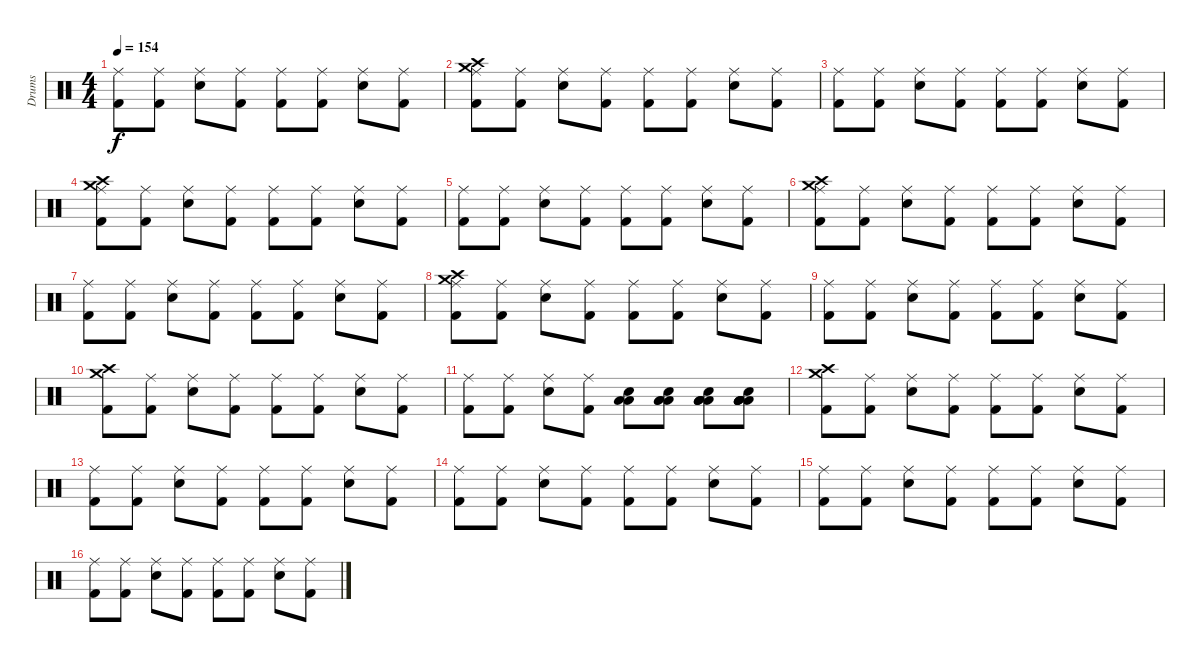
\track ("Drums" "Drums") {instrument percussion}
\staff {score}
\articulation defaults
\ts (4 4)
\tempo 154
\clef neutral
\ks c
("Ride (middle)" "Kick (hit) 2").8{dy f} ("Ride (middle)" "Kick (hit) 2").8 ("Ride (middle)" "Snare (hit) 2").8 ("Ride (middle)" "Kick (hit) 2").8 ("Ride (middle)" "Kick (hit) 2").8 ("Ride (middle)" "Kick (hit) 2").8 ("Ride (middle)" "Snare (hit) 2").8 ("Ride (middle)" "Kick (hit) 2").8 |
("Crash medium (hit)" "Crash high (hit)" "Ride (middle)" "Kick (hit) 2").8 ("Ride (middle)" "Kick (hit) 2").8 ("Ride (middle)" "Snare (hit) 2").8 ("Ride (middle)" "Kick (hit) 2").8 ("Ride (middle)" "Kick (hit) 2").8 ("Ride (middle)" "Kick (hit) 2").8 ("Ride (middle)" "Snare (hit) 2").8 ("Ride (middle)" "Kick (hit) 2").8 |
("Ride (middle)" "Kick (hit) 2").8 ("Ride (middle)" "Kick (hit) 2").8 ("Ride (middle)" "Snare (hit) 2").8 ("Ride (middle)" "Kick (hit) 2").8 ("Ride (middle)" "Kick (hit) 2").8 ("Ride (middle)" "Kick (hit) 2").8 ("Ride (middle)" "Snare (hit) 2").8 ("Ride (middle)" "Kick (hit) 2").8 |
("Crash high (hit)" "Crash medium (hit)" "Ride (middle)" "Kick (hit) 2").8 ("Ride (middle)" "Kick (hit) 2").8 ("Ride (middle)" "Snare (hit) 2").8 ("Ride (middle)" "Kick (hit) 2").8 ("Ride (middle)" "Kick (hit) 2").8 ("Ride (middle)" "Kick (hit) 2").8 ("Ride (middle)" "Snare (hit) 2").8 ("Ride (middle)" "Kick (hit) 2").8 |
("Ride (middle)" "Kick (hit) 2").8 ("Ride (middle)" "Kick (hit) 2").8 ("Ride (middle)" "Snare (hit) 2").8 ("Ride (middle)" "Kick (hit) 2").8 ("Ride (middle)" "Kick (hit) 2").8 ("Ride (middle)" "Kick (hit) 2").8 ("Ride (middle)" "Snare (hit) 2").8 ("Ride (middle)" "Kick (hit) 2").8 |
("Crash medium (hit)" "Crash high (hit)" "Ride (middle)" "Kick (hit) 2").8 ("Ride (middle)" "Kick (hit) 2").8 ("Ride (middle)" "Snare (hit) 2").8 ("Ride (middle)" "Kick (hit) 2").8 ("Ride (middle)" "Kick (hit) 2").8 ("Ride (middle)" "Kick (hit) 2").8 ("Ride (middle)" "Snare (hit) 2").8 ("Ride (middle)" "Kick (hit) 2").8 |
("Ride (middle)" "Kick (hit) 2").8 ("Ride (middle)" "Kick (hit) 2").8 ("Ride (middle)" "Snare (hit) 2").8 ("Ride (middle)" "Kick (hit) 2").8 ("Ride (middle)" "Kick (hit) 2").8 ("Ride (middle)" "Kick (hit) 2").8 ("Ride (middle)" "Snare (hit) 2").8 ("Ride (middle)" "Kick (hit) 2").8 |
("Crash high (hit)" "Crash medium (hit)" "Ride (middle)" "Kick (hit) 2").8 ("Ride (middle)" "Kick (hit) 2").8 ("Ride (middle)" "Snare (hit) 2").8 ("Ride (middle)" "Kick (hit) 2").8 ("Ride (middle)" "Kick (hit) 2").8 ("Ride (middle)" "Kick (hit) 2").8 ("Ride (middle)" "Snare (hit) 2").8 ("Ride (middle)" "Kick (hit) 2").8 |
("Ride (middle)" "Kick (hit) 2").8 ("Ride (middle)" "Kick (hit) 2").8 ("Ride (middle)" "Snare (hit) 2").8 ("Ride (middle)" "Kick (hit) 2").8 ("Ride (middle)" "Kick (hit) 2").8 ("Ride (middle)" "Kick (hit) 2").8 ("Ride (middle)" "Snare (hit) 2").8 ("Ride (middle)" "Kick (hit) 2").8 |
("Crash high (hit)" "Crash medium (hit)" "Kick (hit) 2").8 ("Ride (middle)" "Kick (hit) 2").8 ("Ride (middle)" "Snare (hit) 2").8 ("Ride (middle)" "Kick (hit) 2").8 ("Ride (middle)" "Kick (hit) 2").8 ("Ride (middle)" "Kick (hit) 2").8 ("Ride (middle)" "Snare (hit) 2").8 ("Ride (middle)" "Kick (hit) 2").8 |
("Ride (middle)" "Kick (hit) 2").8 ("Ride (middle)" "Kick (hit) 2").8 ("Ride (middle)" "Snare (hit) 2").8 ("Ride (middle)" "Kick (hit) 2").8 ("Low Tom (hit)" "Low Floor Tom (hit)" "Snare (hit) 2").8 ("Low Floor Tom (hit)" "Low Tom (hit)" "Low Floor Tom (hit)" "Snare (hit) 2").8 ("Low Floor Tom (hit)" "Low Floor Tom (hit)" "Low Tom (hit)" "Low Floor Tom (hit)" "Snare (hit) 2").8 ("Low Floor Tom (hit)" "Low Floor Tom (hit)" "Low Tom (hit)" "Low Tom (hit)" "Low Floor Tom (hit)" "Snare (hit) 2").8 |
("Crash high (hit)" "Crash medium (hit)" "Kick (hit) 2").8 ("Ride (middle)" "Kick (hit) 2").8 ("Ride (middle)" "Snare (hit) 2").8 ("Ride (middle)" "Kick (hit) 2").8 ("Ride (middle)" "Kick (hit) 2").8 ("Ride (middle)" "Kick (hit) 2").8 ("Ride (middle)" "Snare (hit) 2").8 ("Ride (middle)" "Kick (hit) 2").8 |
("Ride (middle)" "Kick (hit) 2").8 ("Ride (middle)" "Kick (hit) 2").8 ("Ride (middle)" "Snare (hit) 2").8 ("Ride (middle)" "Kick (hit) 2").8 ("Ride (middle)" "Kick (hit) 2").8 ("Ride (middle)" "Kick (hit) 2").8 ("Ride (middle)" "Snare (hit) 2").8 ("Ride (middle)" "Kick (hit) 2").8 |
("Ride (middle)" "Kick (hit) 2").8 ("Ride (middle)" "Kick (hit) 2").8 ("Ride (middle)" "Snare (hit) 2").8 ("Ride (middle)" "Kick (hit) 2").8 ("Ride (middle)" "Kick (hit) 2").8 ("Ride (middle)" "Kick (hit) 2").8 ("Ride (middle)" "Snare (hit) 2").8 ("Ride (middle)" "Kick (hit) 2").8 |
("Ride (middle)" "Kick (hit) 2").8 ("Ride (middle)" "Kick (hit) 2").8 ("Ride (middle)" "Snare (hit) 2").8 ("Ride (middle)" "Kick (hit) 2").8 ("Ride (middle)" "Kick (hit) 2").8 ("Ride (middle)" "Kick (hit) 2").8 ("Ride (middle)" "Snare (hit) 2").8 ("Ride (middle)" "Kick (hit) 2").8 |
("Ride (middle)" "Kick (hit) 2").8 ("Ride (middle)" "Kick (hit) 2").8 ("Ride (middle)" "Snare (hit) 2").8 ("Ride (middle)" "Kick (hit) 2").8 ("Ride (middle)" "Kick (hit) 2").8 ("Ride (middle)" "Kick (hit) 2").8 ("Ride (middle)" "Snare (hit) 2").8 ("Ride (middle)" "Kick (hit) 2").8
